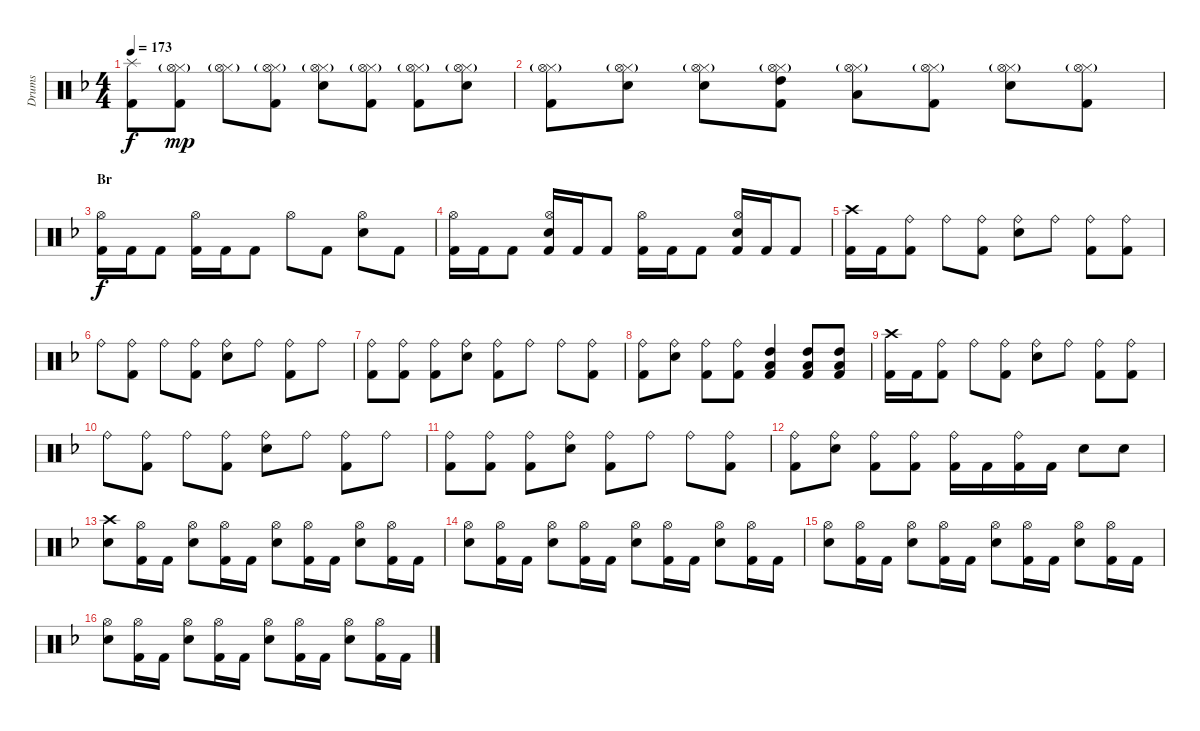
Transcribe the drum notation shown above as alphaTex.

\track ("Drums" "Drums") {instrument percussion}
\staff {score}
\articulation defaults
\ts (4 4)
\tempo 173
\clef neutral
\ks dminor
("Splash (hit)" "Kick (hit) 2").8{dy f} ("Hi-Hat (closed)"{g} "Hi-Hat (open)"{g} "Kick (hit) 2").8{dy mp} ("Hi-Hat (closed)"{g} "Hi-Hat (open)"{g}).8 ("Hi-Hat (closed)"{g} "Hi-Hat (open)"{g} "Kick (hit) 2").8 ("Hi-Hat (closed)"{g} "Hi-Hat (open)"{g} "Snare (hit) 2").8 ("Hi-Hat (closed)"{g} "Hi-Hat (open)"{g} "Kick (hit) 2").8 ("Hi-Hat (closed)"{g} "Hi-Hat (open)"{g} "Kick (hit) 2").8 ("Hi-Hat (closed)"{g} "Hi-Hat (open)"{g} "Snare (hit) 2").8 |
("Hi-Hat (closed)"{g} "Hi-Hat (open)"{g} "Kick (hit) 2").8 ("Hi-Hat (closed)"{g} "Hi-Hat (open)"{g} "Snare (hit) 2").8 ("Hi-Hat (closed)"{g} "Hi-Hat (open)"{g} "Snare (hit) 2").8 ("Hi-Hat (closed)"{g} "Hi-Hat (open)"{g} "High Tom (hit)" "Kick (hit) 2").8 ("Hi-Hat (closed)"{g} "Hi-Hat (open)"{g} "Low Tom (hit)").8 ("Hi-Hat (closed)"{g} "Hi-Hat (open)"{g} "Kick (hit) 2").8 ("Hi-Hat (closed)"{g} "Hi-Hat (open)"{g} "Snare (hit) 2").8 ("Hi-Hat (closed)"{g} "Hi-Hat (open)"{g} "Kick (hit) 2").8 |
\section ("" "Br")
("Hi-Hat (open)" "Kick (hit) 2").16{dy f} "Kick (hit) 2".16 "Kick (hit) 2".8 ("Hi-Hat (open)" "Kick (hit) 2").16 "Kick (hit) 2".16 "Kick (hit) 2".8 "Hi-Hat (open)".8 "Kick (hit) 2".8 ("Hi-Hat (open)" "Snare (hit) 2").8 "Kick (hit) 2".8 |
("Hi-Hat (open)" "Kick (hit) 2").16 "Kick (hit) 2".16 "Kick (hit) 2".8 ("Hi-Hat (open)" "Snare (hit) 2" "Kick (hit) 2").16 "Kick (hit) 2".16 "Kick (hit) 2".8 ("Hi-Hat (open)" "Kick (hit) 2").16 "Kick (hit) 2".16 "Kick (hit) 2".8 ("Hi-Hat (open)" "Snare (hit) 2" "Kick (hit) 2").16 "Kick (hit) 2".16 "Kick (hit) 2".8 |
("Crash high (hit)" "Kick (hit) 2").16 "Kick (hit) 2".16 ("Ride (bell)" "Kick (hit) 2").8 "Ride (bell)".8 ("Ride (bell)" "Kick (hit) 2").8 ("Ride (bell)" "Snare (hit) 2").8 "Ride (bell)".8 ("Ride (bell)" "Kick (hit) 2").8 ("Ride (bell)" "Kick (hit) 2").8 |
"Ride (bell)".8 ("Ride (bell)" "Kick (hit) 2").8 "Ride (bell)".8 ("Ride (bell)" "Kick (hit) 2").8 ("Ride (bell)" "Snare (hit) 2").8 "Ride (bell)".8 ("Ride (bell)" "Kick (hit) 2").8 "Ride (bell)".8 |
("Ride (bell)" "Kick (hit) 2").8 ("Ride (bell)" "Kick (hit) 2").8 ("Ride (bell)" "Kick (hit) 2").8 ("Ride (bell)" "Snare (hit) 2").8 ("Ride (bell)" "Kick (hit) 2").8 "Ride (bell)".8 "Ride (bell)".8 ("Ride (bell)" "Kick (hit) 2").8 |
("Ride (bell)" "Kick (hit) 2").8 ("Ride (bell)" "Snare (hit) 2").8 ("Ride (bell)" "Kick (hit) 2").8 ("Ride (bell)" "Kick (hit) 2").8 ("High Tom (hit)" "Low Tom (hit)" "Kick (hit) 2").4 ("High Tom (hit)" "Low Tom (hit)" "Kick (hit) 2").8 ("High Tom (hit)" "Low Tom (hit)" "Kick (hit) 2").8 |
("Crash high (hit)" "Kick (hit) 2").16 "Kick (hit) 2".16 ("Ride (bell)" "Kick (hit) 2").8 "Ride (bell)".8 ("Ride (bell)" "Kick (hit) 2").8 ("Ride (bell)" "Snare (hit) 2").8 "Ride (bell)".8 ("Ride (bell)" "Kick (hit) 2").8 ("Ride (bell)" "Kick (hit) 2").8 |
"Ride (bell)".8 ("Ride (bell)" "Kick (hit) 2").8 "Ride (bell)".8 ("Ride (bell)" "Kick (hit) 2").8 ("Ride (bell)" "Snare (hit) 2").8 "Ride (bell)".8 ("Ride (bell)" "Kick (hit) 2").8 "Ride (bell)".8 |
("Ride (bell)" "Kick (hit) 2").8 ("Ride (bell)" "Kick (hit) 2").8 ("Ride (bell)" "Kick (hit) 2").8 ("Ride (bell)" "Snare (hit) 2").8 ("Ride (bell)" "Kick (hit) 2").8 "Ride (bell)".8 "Ride (bell)".8 ("Ride (bell)" "Kick (hit) 2").8 |
("Ride (bell)" "Kick (hit) 2").8 ("Ride (bell)" "Snare (hit) 2").8 ("Ride (bell)" "Kick (hit) 2").8 ("Ride (bell)" "Kick (hit) 2").8 ("Ride (bell)" "Kick (hit) 2").16 "Kick (hit) 2".16 ("Ride (bell)" "Kick (hit) 2").16 "Kick (hit) 2".16 "Snare (hit) 2".8 "Snare (hit) 2".8 |
("Crash high (hit)" "Snare (hit) 2").8 ("Hi-Hat (open)" "Kick (hit) 2").16 "Kick (hit) 2".16 ("Hi-Hat (open)" "Snare (hit) 2").8 ("Hi-Hat (open)" "Kick (hit) 2").16 "Kick (hit) 2".16 ("Hi-Hat (open)" "Snare (hit) 2").8 ("Hi-Hat (open)" "Kick (hit) 2").16 "Kick (hit) 2".16 ("Hi-Hat (open)" "Snare (hit) 2").8 ("Hi-Hat (open)" "Kick (hit) 2").16 "Kick (hit) 2".16 |
("Hi-Hat (open)" "Snare (hit) 2").8 ("Hi-Hat (open)" "Kick (hit) 2").16 "Kick (hit) 2".16 ("Hi-Hat (open)" "Snare (hit) 2").8 ("Hi-Hat (open)" "Kick (hit) 2").16 "Kick (hit) 2".16 ("Hi-Hat (open)" "Snare (hit) 2").8 ("Hi-Hat (open)" "Kick (hit) 2").16 "Kick (hit) 2".16 ("Hi-Hat (open)" "Snare (hit) 2").8 ("Hi-Hat (open)" "Kick (hit) 2").16 "Kick (hit) 2".16 |
("Hi-Hat (open)" "Snare (hit) 2").8 ("Hi-Hat (open)" "Kick (hit) 2").16 "Kick (hit) 2".16 ("Hi-Hat (open)" "Snare (hit) 2").8 ("Hi-Hat (open)" "Kick (hit) 2").16 "Kick (hit) 2".16 ("Hi-Hat (open)" "Snare (hit) 2").8 ("Hi-Hat (open)" "Kick (hit) 2").16 "Kick (hit) 2".16 ("Hi-Hat (open)" "Snare (hit) 2").8 ("Hi-Hat (open)" "Kick (hit) 2").16 "Kick (hit) 2".16 |
("Hi-Hat (open)" "Snare (hit) 2").8 ("Hi-Hat (open)" "Kick (hit) 2").16 "Kick (hit) 2".16 ("Hi-Hat (open)" "Snare (hit) 2").8 ("Hi-Hat (open)" "Kick (hit) 2").16 "Kick (hit) 2".16 ("Hi-Hat (open)" "Snare (hit) 2").8 ("Hi-Hat (open)" "Kick (hit) 2").16 "Kick (hit) 2".16 ("Hi-Hat (open)" "Snare (hit) 2").8 ("Hi-Hat (open)" "Kick (hit) 2").16 "Kick (hit) 2".16
